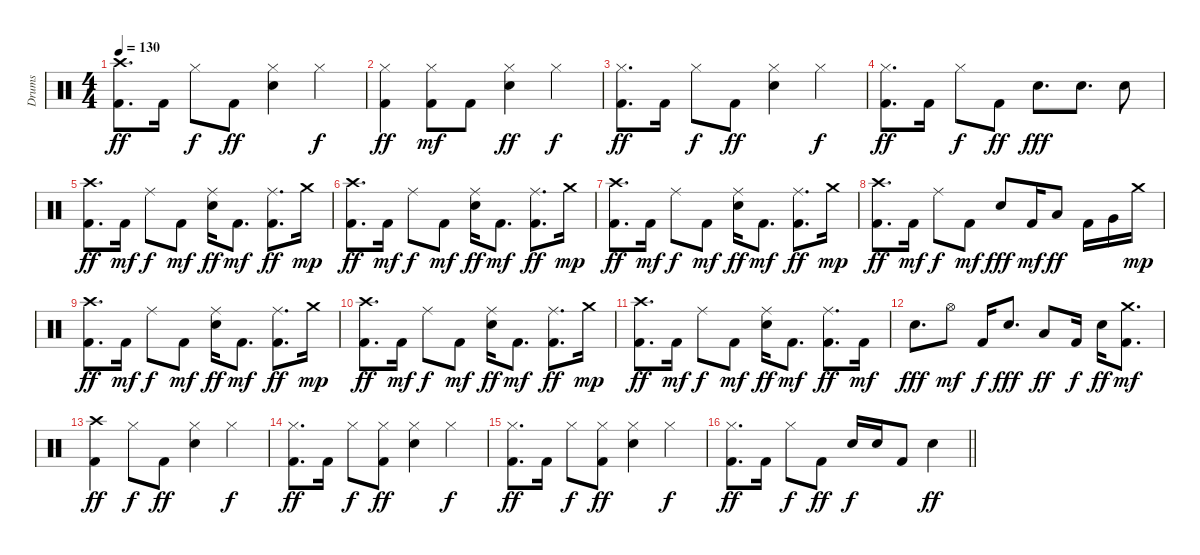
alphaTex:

\track ("Drums" "Drums") {instrument percussion}
\staff {score}
\articulation defaults
\ts (4 4)
\tempo 130
\clef neutral
\ks c
("Crash high (hit)" "Kick (hit) 2").8{d dy ff} "Kick (hit) 2".16 "Hi-Hat (closed)".8{dy f} "Kick (hit) 2".8{dy ff} ("Hi-Hat (closed)" "Electric Snare (hit)").4 "Hi-Hat (closed)".4{dy f} |
("Hi-Hat (closed)" "Kick (hit) 2").4{dy ff} ("Hi-Hat (closed)" "Kick (hit) 2").8{dy mf} "Kick (hit) 2".8 ("Hi-Hat (closed)" "Electric Snare (hit)").4{dy ff} "Hi-Hat (closed)".4{dy f} |
("Hi-Hat (closed)" "Kick (hit) 2").8{d dy ff} "Kick (hit) 2".16 "Hi-Hat (closed)".8{dy f} "Kick (hit) 2".8{dy ff} ("Hi-Hat (closed)" "Electric Snare (hit)").4 "Hi-Hat (closed)".4{dy f} |
("Hi-Hat (closed)" "Kick (hit) 2").8{d dy ff} "Kick (hit) 2".16 "Hi-Hat (closed)".8{dy f} "Kick (hit) 2".8{dy ff} "Electric Snare (hit)".8{d dy fff} "Electric Snare (hit)".8{d} "Electric Snare (hit)".8 |
("Crash high (hit)" "Kick (hit) 2").8{d dy ff} "Kick (hit) 2".16{dy mf} "Ride (middle)".8{dy f} "Kick (hit) 2".8{dy mf} ("Ride (middle)" "Electric Snare (hit)").16{dy ff} "Kick (hit) 2".8{d dy mf} ("Ride (middle)" "Kick (hit) 2").8{d dy ff} "Crash medium (hit)".16{dy mp} |
("Crash high (hit)" "Kick (hit) 2").8{d dy ff} "Kick (hit) 2".16{dy mf} "Ride (middle)".8{dy f} "Kick (hit) 2".8{dy mf} ("Ride (middle)" "Electric Snare (hit)").16{dy ff} "Kick (hit) 2".8{d dy mf} ("Ride (middle)" "Kick (hit) 2").8{d dy ff} "Crash medium (hit)".16{dy mp} |
("Crash high (hit)" "Kick (hit) 2").8{d dy ff} "Kick (hit) 2".16{dy mf} "Ride (middle)".8{dy f} "Kick (hit) 2".8{dy mf} ("Ride (middle)" "Electric Snare (hit)").16{dy ff} "Kick (hit) 2".8{d dy mf} ("Ride (middle)" "Kick (hit) 2").8{d dy ff} "Crash medium (hit)".16{dy mp} |
("Crash high (hit)" "Kick (hit) 2").8{d dy ff} "Kick (hit) 2".16{dy mf} "Ride (middle)".8{dy f} "Kick (hit) 2".8{dy mf} "Electric Snare (hit)".8{dy fff} "Kick (hit) 2".16{dy mf} "Low Tom (hit)".8{dy ff} "Kick (hit) 2".16 "Very Low Tom (hit)".16 "Crash medium (hit)".16{dy mp} |
("Crash high (hit)" "Kick (hit) 2").8{d dy ff} "Kick (hit) 2".16{dy mf} "Ride (middle)".8{dy f} "Kick (hit) 2".8{dy mf} ("Ride (middle)" "Electric Snare (hit)").16{dy ff} "Kick (hit) 2".8{d dy mf} ("Ride (middle)" "Kick (hit) 2").8{d dy ff} "Crash medium (hit)".16{dy mp} |
("Crash high (hit)" "Kick (hit) 2").8{d dy ff} "Kick (hit) 2".16{dy mf} "Ride (middle)".8{dy f} "Kick (hit) 2".8{dy mf} ("Ride (middle)" "Electric Snare (hit)").16{dy ff} "Kick (hit) 2".8{d dy mf} ("Ride (middle)" "Kick (hit) 2").8{d dy ff} "Crash medium (hit)".16{dy mp} |
("Crash high (hit)" "Kick (hit) 2").8{d dy ff} "Kick (hit) 2".16{dy mf} "Ride (middle)".8{dy f} "Kick (hit) 2".8{dy mf} ("Ride (middle)" "Electric Snare (hit)").16{dy ff} "Kick (hit) 2".8{d dy mf} ("Ride (middle)" "Kick (hit) 2").8{d dy ff} "Kick (hit) 2".16{dy mf} |
"Electric Snare (hit)".8{d dy fff} "Hi-Hat (open)".8{dy mf} "Kick (hit) 2".16{dy f} "Electric Snare (hit)".8{d dy fff} "Low Tom (hit)".8{dy ff} "Kick (hit) 2".16{dy f} "Electric Snare (hit)".16{dy ff} ("Crash medium (hit)" "Kick (hit) 2").8{d dy mf} |
("Crash high (hit)" "Kick (hit) 2").4{dy ff} "Hi-Hat (closed)".8{dy f} "Kick (hit) 2".8{dy ff} ("Hi-Hat (closed)" "Electric Snare (hit)").4 "Hi-Hat (closed)".4{dy f} |
("Hi-Hat (closed)" "Kick (hit) 2").8{d dy ff} "Kick (hit) 2".16 "Hi-Hat (closed)".8{dy f} ("Hi-Hat (closed)" "Kick (hit) 2").8{dy ff} ("Hi-Hat (closed)" "Electric Snare (hit)").4 "Hi-Hat (closed)".4{dy f} |
("Hi-Hat (closed)" "Kick (hit) 2").8{d dy ff} "Kick (hit) 2".16 "Hi-Hat (closed)".8{dy f} ("Hi-Hat (closed)" "Kick (hit) 2").8{dy ff} ("Hi-Hat (closed)" "Electric Snare (hit)").4 "Hi-Hat (closed)".4{dy f} |
\barLineRight lightlight
("Hi-Hat (closed)" "Kick (hit) 2").8{d dy ff} "Kick (hit) 2".16 "Hi-Hat (closed)".8{dy f} "Kick (hit) 2".8{dy ff} "Electric Snare (hit)".16{dy f} "Electric Snare (hit)".16 "Kick (hit) 2".8 "Electric Snare (hit)".4{dy ff}
